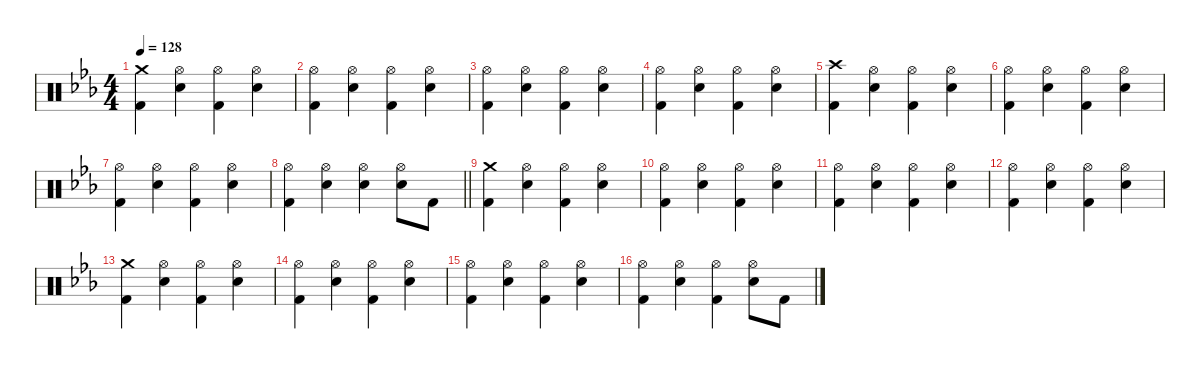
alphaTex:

\defaultSystemsLayout 4
\hideDynamics
\bracketExtendMode nobrackets
\singleTrackTrackNamePolicy hidden
\multiTrackTrackNamePolicy hidden
\firstSystemTrackNameMode fullname
\otherSystemsTrackNameOrientation horizontal
\track ("Drums" "drm.") {instrument percussion}
\staff {score}
\articulation defaults
\ts (4 4)
\tempo 128
\clef neutral
\ks cminor
("Crash medium (hit)"{acc forcenatural} "Kick (hit) 2"{acc forcenatural}).4{dy f beam Down} ("Hi-Hat (open)"{acc forcenatural} "Snare (hit) 2"{acc forcenatural}).4{dy mp beam Down} ("Hi-Hat (open)"{acc forcenatural} "Kick (hit) 2"{acc forcenatural}).4{beam Down} ("Hi-Hat (open)"{acc forcenatural} "Snare (hit) 2"{acc forcenatural}).4{beam Down} |
("Hi-Hat (open)"{acc forcenatural} "Kick (hit) 2"{acc forcenatural}).4{beam Down} ("Hi-Hat (open)"{acc forcenatural} "Snare (hit) 2"{acc forcenatural}).4{beam Down} ("Hi-Hat (open)"{acc forcenatural} "Kick (hit) 2"{acc forcenatural}).4{beam Down} ("Hi-Hat (open)"{acc forcenatural} "Snare (hit) 2"{acc forcenatural}).4{beam Down} |
("Hi-Hat (open)"{acc forcenatural} "Kick (hit) 2"{acc forcenatural}).4{beam Down} ("Hi-Hat (open)"{acc forcenatural} "Snare (hit) 2"{acc forcenatural}).4{beam Down} ("Hi-Hat (open)"{acc forcenatural} "Kick (hit) 2"{acc forcenatural}).4{beam Down} ("Hi-Hat (open)"{acc forcenatural} "Snare (hit) 2"{acc forcenatural}).4{beam Down} |
("Hi-Hat (open)"{acc forcenatural} "Kick (hit) 2"{acc forcenatural}).4{beam Down} ("Hi-Hat (open)"{acc forcenatural} "Snare (hit) 2"{acc forcenatural}).4{beam Down} ("Hi-Hat (open)"{acc forcenatural} "Kick (hit) 2"{acc forcenatural}).4{beam Down} ("Hi-Hat (open)"{acc forcenatural} "Snare (hit) 2"{acc forcenatural}).4{beam Down} |
("Crash high (hit)"{acc forcenatural} "Kick (hit) 2"{acc forcenatural}).4{dy f beam Down} ("Hi-Hat (open)"{acc forcenatural} "Snare (hit) 2"{acc forcenatural}).4{dy mp beam Down} ("Hi-Hat (open)"{acc forcenatural} "Kick (hit) 2"{acc forcenatural}).4{beam Down} ("Hi-Hat (open)"{acc forcenatural} "Snare (hit) 2"{acc forcenatural}).4{beam Down} |
("Hi-Hat (open)"{acc forcenatural} "Kick (hit) 2"{acc forcenatural}).4{beam Down} ("Hi-Hat (open)"{acc forcenatural} "Snare (hit) 2"{acc forcenatural}).4{beam Down} ("Hi-Hat (open)"{acc forcenatural} "Kick (hit) 2"{acc forcenatural}).4{beam Down} ("Hi-Hat (open)"{acc forcenatural} "Snare (hit) 2"{acc forcenatural}).4{beam Down} |
("Hi-Hat (open)"{acc forcenatural} "Kick (hit) 2"{acc forcenatural}).4{beam Down} ("Hi-Hat (open)"{acc forcenatural} "Snare (hit) 2"{acc forcenatural}).4{beam Down} ("Hi-Hat (open)"{acc forcenatural} "Kick (hit) 2"{acc forcenatural}).4{beam Down} ("Hi-Hat (open)"{acc forcenatural} "Snare (hit) 2"{acc forcenatural}).4{beam Down} |
\barLineRight lightlight
("Hi-Hat (open)"{acc forcenatural} "Kick (hit) 2"{acc forcenatural}).4{beam Down} ("Hi-Hat (open)"{acc forcenatural} "Snare (hit) 2"{acc forcenatural}).4{beam Down} ("Hi-Hat (open)"{acc forcenatural} "Snare (hit) 2"{acc forcenatural}).4{beam Down} ("Hi-Hat (open)"{acc forcenatural} "Snare (hit) 2"{acc forcenatural}).8{beam Down} "Kick (hit) 2"{acc forcenatural}.8{dy f beam Down} |
("Crash medium (hit)"{acc forcenatural} "Kick (hit) 2"{acc forcenatural}).4{beam Down} ("Hi-Hat (open)"{acc forcenatural} "Snare (hit) 2"{acc forcenatural}).4{dy mp beam Down} ("Hi-Hat (open)"{acc forcenatural} "Kick (hit) 2"{acc forcenatural}).4{beam Down} ("Hi-Hat (open)"{acc forcenatural} "Snare (hit) 2"{acc forcenatural}).4{beam Down} |
("Hi-Hat (open)"{acc forcenatural} "Kick (hit) 2"{acc forcenatural}).4{beam Down} ("Hi-Hat (open)"{acc forcenatural} "Snare (hit) 2"{acc forcenatural}).4{beam Down} ("Hi-Hat (open)"{acc forcenatural} "Kick (hit) 2"{acc forcenatural}).4{beam Down} ("Hi-Hat (open)"{acc forcenatural} "Snare (hit) 2"{acc forcenatural}).4{beam Down} |
("Hi-Hat (open)"{acc forcenatural} "Kick (hit) 2"{acc forcenatural}).4{beam Down} ("Hi-Hat (open)"{acc forcenatural} "Snare (hit) 2"{acc forcenatural}).4{beam Down} ("Hi-Hat (open)"{acc forcenatural} "Kick (hit) 2"{acc forcenatural}).4{beam Down} ("Hi-Hat (open)"{acc forcenatural} "Snare (hit) 2"{acc forcenatural}).4{beam Down} |
("Hi-Hat (open)"{acc forcenatural} "Kick (hit) 2"{acc forcenatural}).4{beam Down} ("Hi-Hat (open)"{acc forcenatural} "Snare (hit) 2"{acc forcenatural}).4{beam Down} ("Hi-Hat (open)"{acc forcenatural} "Kick (hit) 2"{acc forcenatural}).4{beam Down} ("Hi-Hat (open)"{acc forcenatural} "Snare (hit) 2"{acc forcenatural}).4{beam Down} |
("Crash medium (hit)"{acc forcenatural} "Kick (hit) 2"{acc forcenatural}).4{dy f beam Down} ("Hi-Hat (open)"{acc forcenatural} "Snare (hit) 2"{acc forcenatural}).4{dy mp beam Down} ("Hi-Hat (open)"{acc forcenatural} "Kick (hit) 2"{acc forcenatural}).4{beam Down} ("Hi-Hat (open)"{acc forcenatural} "Snare (hit) 2"{acc forcenatural}).4{beam Down} |
("Hi-Hat (open)"{acc forcenatural} "Kick (hit) 2"{acc forcenatural}).4{beam Down} ("Hi-Hat (open)"{acc forcenatural} "Snare (hit) 2"{acc forcenatural}).4{beam Down} ("Hi-Hat (open)"{acc forcenatural} "Kick (hit) 2"{acc forcenatural}).4{beam Down} ("Hi-Hat (open)"{acc forcenatural} "Snare (hit) 2"{acc forcenatural}).4{beam Down} |
("Hi-Hat (open)"{acc forcenatural} "Kick (hit) 2"{acc forcenatural}).4{beam Down} ("Hi-Hat (open)"{acc forcenatural} "Snare (hit) 2"{acc forcenatural}).4{beam Down} ("Hi-Hat (open)"{acc forcenatural} "Kick (hit) 2"{acc forcenatural}).4{beam Down} ("Hi-Hat (open)"{acc forcenatural} "Snare (hit) 2"{acc forcenatural}).4{beam Down} |
("Hi-Hat (open)"{acc forcenatural} "Kick (hit) 2"{acc forcenatural}).4{beam Down} ("Hi-Hat (open)"{acc forcenatural} "Snare (hit) 2"{acc forcenatural}).4{beam Down} ("Hi-Hat (open)"{acc forcenatural} "Kick (hit) 2"{acc forcenatural}).4{beam Down} ("Hi-Hat (open)"{acc forcenatural} "Snare (hit) 2"{acc forcenatural}).8{beam Down} "Kick (hit) 2"{acc forcenatural}.8{dy f beam Down}
